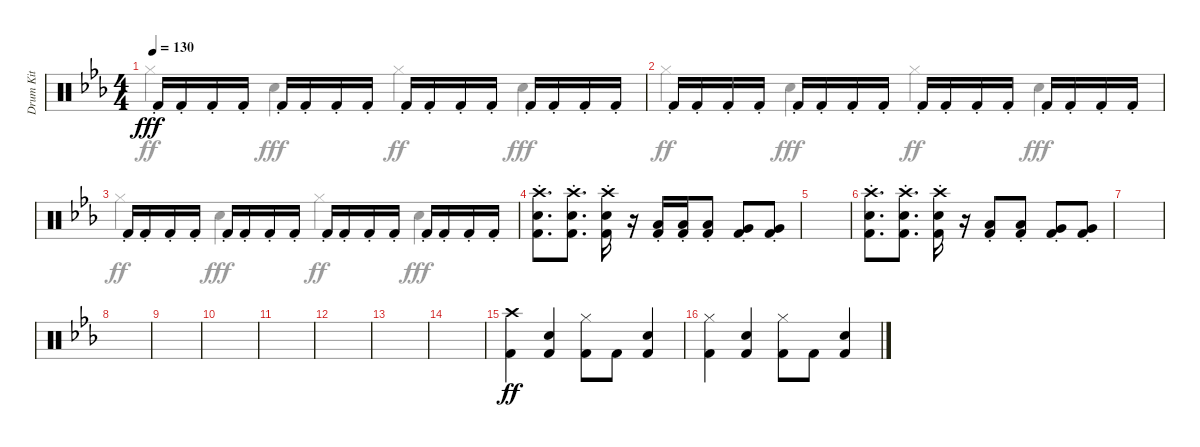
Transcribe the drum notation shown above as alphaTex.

\track ("Drum Kit" "Drum Kit") {instrument percussion}
\staff {score}
\articulation defaults
\voice
\ts (4 4)
\tempo 130
\clef neutral
\ks cminor "Kick (hit) 2"{st}.16{dy fff} "Kick (hit) 2"{st}.16 "Kick (hit) 2"{st}.16 "Kick (hit) 2"{st}.16 "Kick (hit) 2"{st}.16 "Kick (hit) 2"{st}.16 "Kick (hit) 2"{st}.16 "Kick (hit) 2"{st}.16 "Kick (hit) 2"{st}.16 "Kick (hit) 2"{st}.16 "Kick (hit) 2"{st}.16 "Kick (hit) 2"{st}.16 "Kick (hit) 2"{st}.16 "Kick (hit) 2"{st}.16 "Kick (hit) 2"{st}.16 "Kick (hit) 2"{st}.16
|
"Kick (hit) 2"{st}.16 "Kick (hit) 2"{st}.16 "Kick (hit) 2"{st}.16 "Kick (hit) 2"{st}.16 "Kick (hit) 2"{st}.16 "Kick (hit) 2"{st}.16 "Kick (hit) 2"{st}.16 "Kick (hit) 2"{st}.16 "Kick (hit) 2"{st}.16 "Kick (hit) 2"{st}.16 "Kick (hit) 2"{st}.16 "Kick (hit) 2"{st}.16 "Kick (hit) 2"{st}.16 "Kick (hit) 2"{st}.16 "Kick (hit) 2"{st}.16 "Kick (hit) 2"{st}.16 |
"Kick (hit) 2"{st}.16 "Kick (hit) 2"{st}.16 "Kick (hit) 2"{st}.16 "Kick (hit) 2"{st}.16 "Kick (hit) 2"{st}.16 "Kick (hit) 2"{st}.16 "Kick (hit) 2"{st}.16 "Kick (hit) 2"{st}.16 "Kick (hit) 2"{st}.16 "Kick (hit) 2"{st}.16 "Kick (hit) 2"{st}.16 "Kick (hit) 2"{st}.16 "Kick (hit) 2"{st}.16 "Kick (hit) 2"{st}.16 "Kick (hit) 2"{st}.16 "Kick (hit) 2"{st}.16 |
("Electric Snare (hit)" "Kick (hit) 2"{st} "Crash high (hit)").8{d} ("Electric Snare (hit)" "Crash high (hit)" "Kick (hit) 2"{st}).8{d} ("Electric Snare (hit)" "Crash high (hit)" "Kick (hit) 2"{st}).16 r.16 ("Kick (hit) 2"{st} "Low Tom (hit)").16 ("Kick (hit) 2"{st} "Low Tom (hit)").16 ("Kick (hit) 2"{st} "Low Tom (hit)").8 ("Kick (hit) 2"{st} "Very Low Tom (hit)").8 ("Kick (hit) 2"{st} "Very Low Tom (hit)").8 |
|
("Electric Snare (hit)" "Kick (hit) 2"{st} "Crash high (hit)").8{d} ("Electric Snare (hit)" "Crash high (hit)" "Kick (hit) 2"{st}).8{d} ("Electric Snare (hit)" "Crash high (hit)" "Kick (hit) 2"{st}).16 r.16 ("Kick (hit) 2"{st} "Low Tom (hit)").8 ("Kick (hit) 2"{st} "Low Tom (hit)").8 ("Kick (hit) 2"{st} "Very Low Tom (hit)").8 ("Kick (hit) 2"{st} "Very Low Tom (hit)").8 |
|
|
|
|
|
|
|
|
("Kick (hit) 2" "Crash high (hit)").4{dy ff volume 11} ("Kick (hit) 2" "Electric Snare (hit)").4 ("Kick (hit) 2" "Hi-Hat (closed)").8 "Kick (hit) 2".8 ("Kick (hit) 2" "Electric Snare (hit)").4 |
("Kick (hit) 2" "Hi-Hat (closed)").4 ("Kick (hit) 2" "Electric Snare (hit)").4 ("Kick (hit) 2" "Hi-Hat (closed)").8 "Kick (hit) 2".8 ("Kick (hit) 2" "Electric Snare (hit)").4
\voice
\clef neutral
\ottava regular
\simile none
\ks cminor "Hi-Hat (closed)".4{dy ff} "Electric Snare (hit)".4{dy fff} "Hi-Hat (closed)".4{dy ff} "Electric Snare (hit)".4{dy fff}
|
"Hi-Hat (closed)".4{dy ff} "Electric Snare (hit)".4{dy fff} "Hi-Hat (closed)".4{dy ff} "Electric Snare (hit)".4{dy fff} |
"Hi-Hat (closed)".4{dy ff} "Electric Snare (hit)".4{dy fff} "Hi-Hat (closed)".4{dy ff} "Electric Snare (hit)".4{dy fff} |
|
|
|
|
|
|
|
|
|
|
|
|
